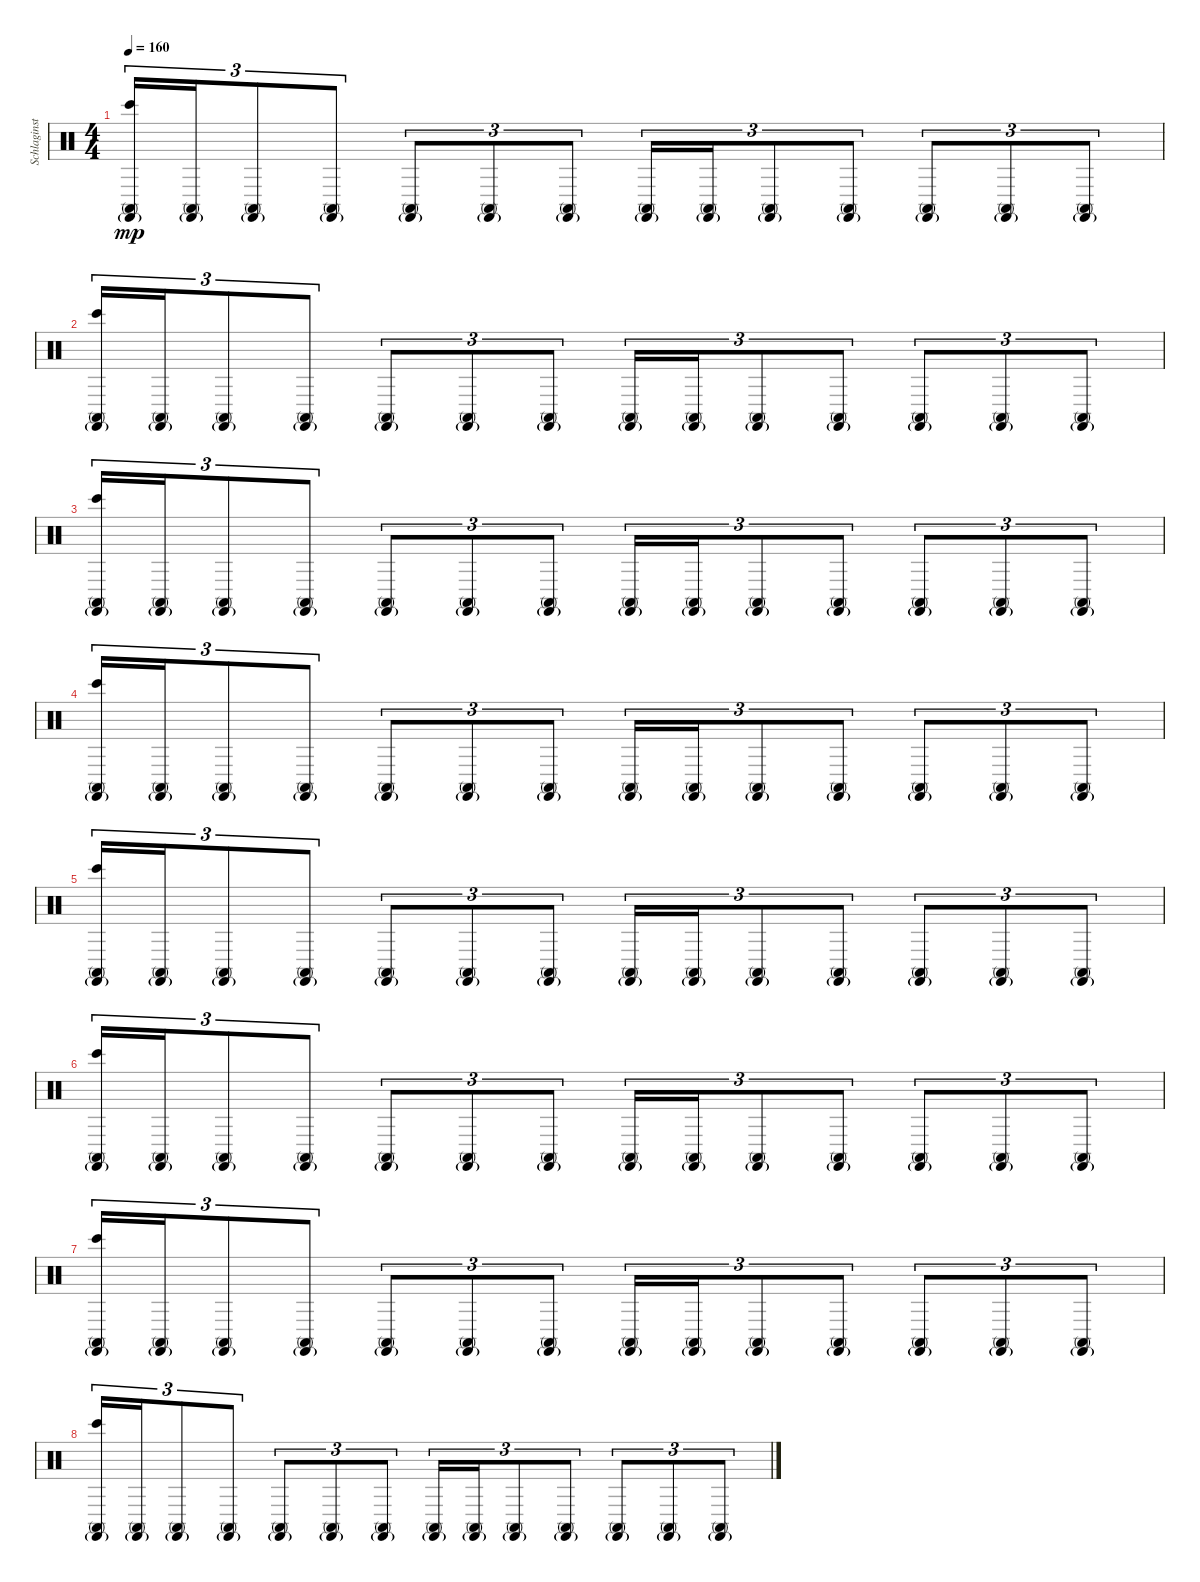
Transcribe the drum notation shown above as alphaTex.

\track ("Schlaginstrumente - Auswahl" "Schlaginst") {instrument percussion}
\staff {score}
\articulation defaults
\ts (4 4)
\tempo 160
\clef neutral
\ks c
("Castanets (hit)"{g} "Bongo High (hit)" "Conga high (mute)").16{tu (3 2) dy mp} ("Castanets (hit)"{g} "Conga high (mute)").16{tu (3 2)} ("Castanets (hit)"{g} "Conga high (mute)").8{tu (3 2)} ("Castanets (hit)"{g} "Conga high (mute)").8{tu (3 2)} ("Castanets (hit)"{g} "Conga high (mute)").8{tu (3 2)} ("Castanets (hit)"{g} "Conga high (mute)").8{tu (3 2)} ("Castanets (hit)"{g} "Conga high (mute)").8{tu (3 2)} ("Castanets (hit)"{g} "Conga high (mute)").16{tu (3 2)} ("Castanets (hit)"{g} "Conga high (mute)").16{tu (3 2)} ("Castanets (hit)"{g} "Conga high (mute)").8{tu (3 2)} ("Castanets (hit)"{g} "Conga high (mute)").8{tu (3 2)} ("Castanets (hit)"{g} "Conga high (mute)").8{tu (3 2)} ("Castanets (hit)"{g} "Conga high (mute)").8{tu (3 2)} ("Castanets (hit)"{g} "Conga high (mute)").8{tu (3 2)} |
("Castanets (hit)"{g} "Bongo High (hit)" "Conga high (mute)").16{tu (3 2)} ("Castanets (hit)"{g} "Conga high (mute)").16{tu (3 2)} ("Castanets (hit)"{g} "Conga high (mute)").8{tu (3 2)} ("Castanets (hit)"{g} "Conga high (mute)").8{tu (3 2)} ("Castanets (hit)"{g} "Conga high (mute)").8{tu (3 2)} ("Castanets (hit)"{g} "Conga high (mute)").8{tu (3 2)} ("Castanets (hit)"{g} "Conga high (mute)").8{tu (3 2)} ("Castanets (hit)"{g} "Conga high (mute)").16{tu (3 2)} ("Castanets (hit)"{g} "Conga high (mute)").16{tu (3 2)} ("Castanets (hit)"{g} "Conga high (mute)").8{tu (3 2)} ("Castanets (hit)"{g} "Conga high (mute)").8{tu (3 2)} ("Castanets (hit)"{g} "Conga high (mute)").8{tu (3 2)} ("Castanets (hit)"{g} "Conga high (mute)").8{tu (3 2)} ("Castanets (hit)"{g} "Conga high (mute)").8{tu (3 2)} |
("Castanets (hit)"{g} "Bongo High (hit)" "Conga high (mute)").16{tu (3 2)} ("Castanets (hit)"{g} "Conga high (mute)").16{tu (3 2)} ("Castanets (hit)"{g} "Conga high (mute)").8{tu (3 2)} ("Castanets (hit)"{g} "Conga high (mute)").8{tu (3 2)} ("Castanets (hit)"{g} "Conga high (mute)").8{tu (3 2)} ("Castanets (hit)"{g} "Conga high (mute)").8{tu (3 2)} ("Castanets (hit)"{g} "Conga high (mute)").8{tu (3 2)} ("Castanets (hit)"{g} "Conga high (mute)").16{tu (3 2)} ("Castanets (hit)"{g} "Conga high (mute)").16{tu (3 2)} ("Castanets (hit)"{g} "Conga high (mute)").8{tu (3 2)} ("Castanets (hit)"{g} "Conga high (mute)").8{tu (3 2)} ("Castanets (hit)"{g} "Conga high (mute)").8{tu (3 2)} ("Castanets (hit)"{g} "Conga high (mute)").8{tu (3 2)} ("Castanets (hit)"{g} "Conga high (mute)").8{tu (3 2)} |
("Castanets (hit)"{g} "Bongo High (hit)" "Conga high (mute)").16{tu (3 2)} ("Castanets (hit)"{g} "Conga high (mute)").16{tu (3 2)} ("Castanets (hit)"{g} "Conga high (mute)").8{tu (3 2)} ("Castanets (hit)"{g} "Conga high (mute)").8{tu (3 2)} ("Castanets (hit)"{g} "Conga high (mute)").8{tu (3 2)} ("Castanets (hit)"{g} "Conga high (mute)").8{tu (3 2)} ("Castanets (hit)"{g} "Conga high (mute)").8{tu (3 2)} ("Castanets (hit)"{g} "Conga high (mute)").16{tu (3 2)} ("Castanets (hit)"{g} "Conga high (mute)").16{tu (3 2)} ("Castanets (hit)"{g} "Conga high (mute)").8{tu (3 2)} ("Castanets (hit)"{g} "Conga high (mute)").8{tu (3 2)} ("Castanets (hit)"{g} "Conga high (mute)").8{tu (3 2)} ("Castanets (hit)"{g} "Conga high (mute)").8{tu (3 2)} ("Castanets (hit)"{g} "Conga high (mute)").8{tu (3 2)} |
("Castanets (hit)"{g} "Bongo High (hit)" "Conga high (mute)").16{tu (3 2)} ("Castanets (hit)"{g} "Conga high (mute)").16{tu (3 2)} ("Castanets (hit)"{g} "Conga high (mute)").8{tu (3 2)} ("Castanets (hit)"{g} "Conga high (mute)").8{tu (3 2)} ("Castanets (hit)"{g} "Conga high (mute)").8{tu (3 2)} ("Castanets (hit)"{g} "Conga high (mute)").8{tu (3 2)} ("Castanets (hit)"{g} "Conga high (mute)").8{tu (3 2)} ("Castanets (hit)"{g} "Conga high (mute)").16{tu (3 2)} ("Castanets (hit)"{g} "Conga high (mute)").16{tu (3 2)} ("Castanets (hit)"{g} "Conga high (mute)").8{tu (3 2)} ("Castanets (hit)"{g} "Conga high (mute)").8{tu (3 2)} ("Castanets (hit)"{g} "Conga high (mute)").8{tu (3 2)} ("Castanets (hit)"{g} "Conga high (mute)").8{tu (3 2)} ("Castanets (hit)"{g} "Conga high (mute)").8{tu (3 2)} |
("Castanets (hit)"{g} "Bongo High (hit)" "Conga high (mute)").16{tu (3 2)} ("Castanets (hit)"{g} "Conga high (mute)").16{tu (3 2)} ("Castanets (hit)"{g} "Conga high (mute)").8{tu (3 2)} ("Castanets (hit)"{g} "Conga high (mute)").8{tu (3 2)} ("Castanets (hit)"{g} "Conga high (mute)").8{tu (3 2)} ("Castanets (hit)"{g} "Conga high (mute)").8{tu (3 2)} ("Castanets (hit)"{g} "Conga high (mute)").8{tu (3 2)} ("Castanets (hit)"{g} "Conga high (mute)").16{tu (3 2)} ("Castanets (hit)"{g} "Conga high (mute)").16{tu (3 2)} ("Castanets (hit)"{g} "Conga high (mute)").8{tu (3 2)} ("Castanets (hit)"{g} "Conga high (mute)").8{tu (3 2)} ("Castanets (hit)"{g} "Conga high (mute)").8{tu (3 2)} ("Castanets (hit)"{g} "Conga high (mute)").8{tu (3 2)} ("Castanets (hit)"{g} "Conga high (mute)").8{tu (3 2)} |
("Castanets (hit)"{g} "Bongo High (hit)" "Conga high (mute)").16{tu (3 2)} ("Castanets (hit)"{g} "Conga high (mute)").16{tu (3 2)} ("Castanets (hit)"{g} "Conga high (mute)").8{tu (3 2)} ("Castanets (hit)"{g} "Conga high (mute)").8{tu (3 2)} ("Castanets (hit)"{g} "Conga high (mute)").8{tu (3 2)} ("Castanets (hit)"{g} "Conga high (mute)").8{tu (3 2)} ("Castanets (hit)"{g} "Conga high (mute)").8{tu (3 2)} ("Castanets (hit)"{g} "Conga high (mute)").16{tu (3 2)} ("Castanets (hit)"{g} "Conga high (mute)").16{tu (3 2)} ("Castanets (hit)"{g} "Conga high (mute)").8{tu (3 2)} ("Castanets (hit)"{g} "Conga high (mute)").8{tu (3 2)} ("Castanets (hit)"{g} "Conga high (mute)").8{tu (3 2)} ("Castanets (hit)"{g} "Conga high (mute)").8{tu (3 2)} ("Castanets (hit)"{g} "Conga high (mute)").8{tu (3 2)} |
("Castanets (hit)"{g} "Bongo High (hit)" "Conga high (mute)").16{tu (3 2)} ("Castanets (hit)"{g} "Conga high (mute)").16{tu (3 2)} ("Castanets (hit)"{g} "Conga high (mute)").8{tu (3 2)} ("Castanets (hit)"{g} "Conga high (mute)").8{tu (3 2)} ("Castanets (hit)"{g} "Conga high (mute)").8{tu (3 2)} ("Castanets (hit)"{g} "Conga high (mute)").8{tu (3 2)} ("Castanets (hit)"{g} "Conga high (mute)").8{tu (3 2)} ("Castanets (hit)"{g} "Conga high (mute)").16{tu (3 2)} ("Castanets (hit)"{g} "Conga high (mute)").16{tu (3 2)} ("Castanets (hit)"{g} "Conga high (mute)").8{tu (3 2)} ("Castanets (hit)"{g} "Conga high (mute)").8{tu (3 2)} ("Castanets (hit)"{g} "Conga high (mute)").8{tu (3 2)} ("Castanets (hit)"{g} "Conga high (mute)").8{tu (3 2)} ("Castanets (hit)"{g} "Conga high (mute)").8{tu (3 2)}
